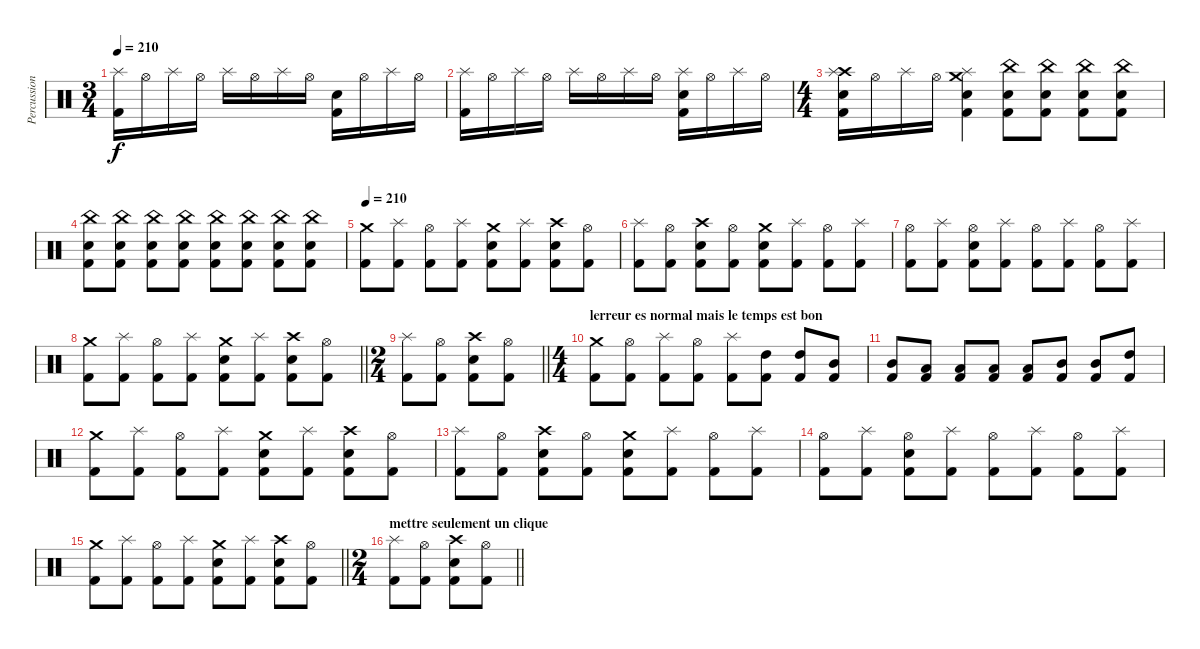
\track ("Percussions" "Percussion") {instrument percussion}
\staff {score}
\articulation defaults
\ts (3 4)
\tempo 210
\clef neutral
\ks c
("Splash (hit)" "Kick (hit) 2").16{dy f} "Hi-Hat (open)".16 "Splash (hit)".16 "Hi-Hat (open)".16 "Splash (hit)".16 "Hi-Hat (open)".16 "Splash (hit)".16 "Hi-Hat (open)".16 ("Electric Snare (hit)" "Kick (hit) 2").16 "Hi-Hat (open)".16 "Splash (hit)".16 "Hi-Hat (open)".16 |
("Splash (hit)" "Kick (hit) 2").16 "Hi-Hat (open)".16 "Splash (hit)".16 "Hi-Hat (open)".16 "Splash (hit)".16 "Hi-Hat (open)".16 "Splash (hit)".16 "Hi-Hat (open)".16 ("Splash (hit)" "Electric Snare (hit)" "Kick (hit) 2").16 "Hi-Hat (open)".16 "Splash (hit)".16 "Hi-Hat (open)".16 |
\ts (4 4)
("Crash high (hit)" "Splash (hit)" "Electric Snare (hit)" "Kick (hit) 2").16 "Hi-Hat (open)".16 "Splash (hit)".16 "Hi-Hat (open)".16 ("Crash medium (hit)" "Splash (hit)" "Electric Snare (hit)" "Kick (hit) 2").4 ("China (hit)" "Electric Snare (hit)" "Kick (hit) 2").8 ("China (hit)" "Electric Snare (hit)" "Kick (hit) 2").8 ("China (hit)" "Electric Snare (hit)" "Kick (hit) 2").8 ("China (hit)" "Electric Snare (hit)" "Kick (hit) 2").8 |
("China (hit)" "Electric Snare (hit)" "Kick (hit) 2").8 ("China (hit)" "Electric Snare (hit)" "Kick (hit) 2").8 ("China (hit)" "Electric Snare (hit)" "Kick (hit) 2").8 ("China (hit)" "Electric Snare (hit)" "Kick (hit) 2").8 ("China (hit)" "Electric Snare (hit)" "Kick (hit) 2").8 ("China (hit)" "Electric Snare (hit)" "Kick (hit) 2").8 ("China (hit)" "Electric Snare (hit)" "Kick (hit) 2").8 ("China (hit)" "Electric Snare (hit)" "Kick (hit) 2").8 |
\tempo 210
("Crash medium (hit)" "Kick (hit) 2").8 ("Splash (hit)" "Kick (hit) 2").8 ("Hi-Hat (open)" "Kick (hit) 2").8 ("Splash (hit)" "Kick (hit) 2").8 ("Crash medium (hit)" "Electric Snare (hit)" "Kick (hit) 2").8 ("Splash (hit)" "Kick (hit) 2").8 ("Crash high (hit)" "Electric Snare (hit)" "Kick (hit) 2").8 ("Hi-Hat (open)" "Kick (hit) 2").8 |
("Splash (hit)" "Kick (hit) 2").8 ("Hi-Hat (open)" "Kick (hit) 2").8 ("Crash high (hit)" "Electric Snare (hit)" "Kick (hit) 2").8 ("Hi-Hat (open)" "Kick (hit) 2").8 ("Crash medium (hit)" "Electric Snare (hit)" "Kick (hit) 2").8 ("Splash (hit)" "Kick (hit) 2").8 ("Hi-Hat (open)" "Kick (hit) 2").8 ("Splash (hit)" "Kick (hit) 2").8 |
("Hi-Hat (open)" "Kick (hit) 2").8 ("Splash (hit)" "Kick (hit) 2").8 ("Hi-Hat (open)" "Electric Snare (hit)" "Kick (hit) 2").8 ("Splash (hit)" "Kick (hit) 2").8 ("Hi-Hat (open)" "Kick (hit) 2").8 ("Splash (hit)" "Kick (hit) 2").8 ("Hi-Hat (open)" "Kick (hit) 2").8 ("Splash (hit)" "Kick (hit) 2").8 |
\barLineRight lightlight
("Crash medium (hit)" "Kick (hit) 2").8 ("Splash (hit)" "Kick (hit) 2").8 ("Hi-Hat (open)" "Kick (hit) 2").8 ("Splash (hit)" "Kick (hit) 2").8 ("Crash medium (hit)" "Electric Snare (hit)" "Kick (hit) 2").8 ("Splash (hit)" "Kick (hit) 2").8 ("Crash high (hit)" "Electric Snare (hit)" "Kick (hit) 2").8 ("Hi-Hat (open)" "Kick (hit) 2").8 |
\ts (2 4)
\barLineRight lightlight
("Splash (hit)" "Kick (hit) 2").8 ("Hi-Hat (open)" "Kick (hit) 2").8 ("Crash high (hit)" "Electric Snare (hit)" "Kick (hit) 2").8 ("Hi-Hat (open)" "Kick (hit) 2").8 |
\ts (4 4)
\section ("" "lerreur es normal mais le temps est bon")
("Crash medium (hit)" "Kick (hit) 2").8 ("Hi-Hat (open)" "Kick (hit) 2").8 ("Splash (hit)" "Kick (hit) 2").8 ("Hi-Hat (open)" "Kick (hit) 2").8 ("Splash (hit)" "Kick (hit) 2").8 ("High Tom (hit)" "Kick (hit) 2").8 ("High Tom (hit)" "Kick (hit) 2").8 ("Mid Tom (hit)" "Kick (hit) 2").8 |
("Mid Tom (hit)" "Kick (hit) 2").8 ("Low Tom (hit)" "Kick (hit) 2").8 ("Low Tom (hit)" "Kick (hit) 2").8 ("Low Tom (hit)" "Kick (hit) 2").8 ("Low Tom (hit)" "Kick (hit) 2").8 ("Mid Tom (hit)" "Kick (hit) 2").8 ("Mid Tom (hit)" "Kick (hit) 2").8 ("High Tom (hit)" "Kick (hit) 2").8 |
("Crash medium (hit)" "Kick (hit) 2").8 ("Splash (hit)" "Kick (hit) 2").8 ("Hi-Hat (open)" "Kick (hit) 2").8 ("Splash (hit)" "Kick (hit) 2").8 ("Crash medium (hit)" "Electric Snare (hit)" "Kick (hit) 2").8 ("Splash (hit)" "Kick (hit) 2").8 ("Crash high (hit)" "Electric Snare (hit)" "Kick (hit) 2").8 ("Hi-Hat (open)" "Kick (hit) 2").8 |
("Splash (hit)" "Kick (hit) 2").8 ("Hi-Hat (open)" "Kick (hit) 2").8 ("Crash high (hit)" "Electric Snare (hit)" "Kick (hit) 2").8 ("Hi-Hat (open)" "Kick (hit) 2").8 ("Crash medium (hit)" "Electric Snare (hit)" "Kick (hit) 2").8 ("Splash (hit)" "Kick (hit) 2").8 ("Hi-Hat (open)" "Kick (hit) 2").8 ("Splash (hit)" "Kick (hit) 2").8 |
("Hi-Hat (open)" "Kick (hit) 2").8 ("Splash (hit)" "Kick (hit) 2").8 ("Hi-Hat (open)" "Electric Snare (hit)" "Kick (hit) 2").8 ("Splash (hit)" "Kick (hit) 2").8 ("Hi-Hat (open)" "Kick (hit) 2").8 ("Splash (hit)" "Kick (hit) 2").8 ("Hi-Hat (open)" "Kick (hit) 2").8 ("Splash (hit)" "Kick (hit) 2").8 |
\barLineRight lightlight
("Crash medium (hit)" "Kick (hit) 2").8 ("Splash (hit)" "Kick (hit) 2").8 ("Hi-Hat (open)" "Kick (hit) 2").8 ("Splash (hit)" "Kick (hit) 2").8 ("Crash medium (hit)" "Electric Snare (hit)" "Kick (hit) 2").8 ("Splash (hit)" "Kick (hit) 2").8 ("Crash high (hit)" "Electric Snare (hit)" "Kick (hit) 2").8 ("Hi-Hat (open)" "Kick (hit) 2").8 |
\ts (2 4)
\section ("" "mettre seulement un clique")
\barLineRight lightlight
("Splash (hit)" "Kick (hit) 2").8 ("Hi-Hat (open)" "Kick (hit) 2").8 ("Crash high (hit)" "Electric Snare (hit)" "Kick (hit) 2").8 ("Hi-Hat (open)" "Kick (hit) 2").8
